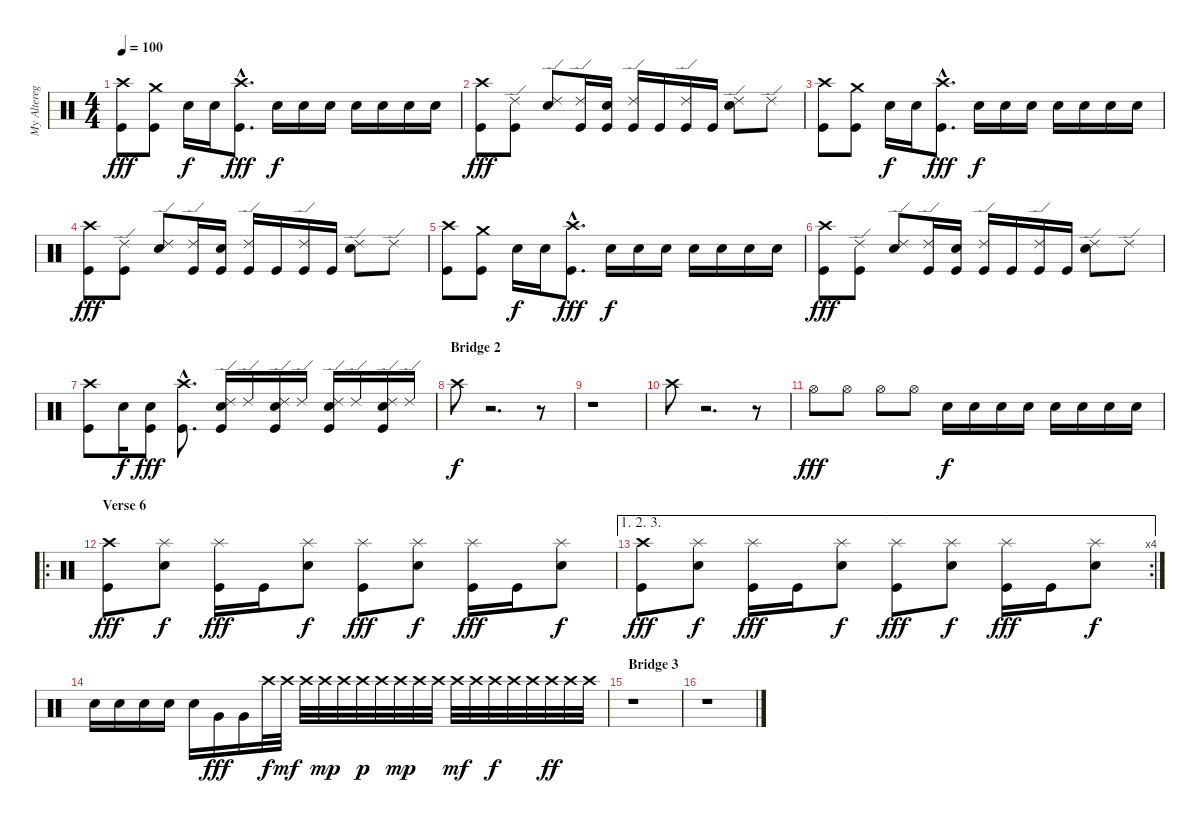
\track ("My Alterego Playing Drums" "My Altereg") {instrument percussion}
\staff {score}
\articulation defaults
\ts (4 4)
\tempo 100
\clef neutral
\ks c
("Crash high (hit)" "Kick (hit)").8{dy fff} ("Crash medium (hit)" "Kick (hit)").8 "Snare (hit) 2".16{dy f} "Snare (hit) 2".16 ("Crash high (hit)"{hac} "Kick (hit)"{hac}).8{d dy fff} "Snare (hit) 2".16{dy f} "Snare (hit) 2".16 "Snare (hit) 2".16 "Snare (hit) 2".16 "Snare (hit) 2".16 "Snare (hit) 2".16 "Snare (hit) 2".16 |
("Crash high (hit)" "Kick (hit)").8{dy fff} ("Ride (edge) 2" "Kick (hit)").8 ("Ride (edge) 2" "Snare (hit) 2").8 ("Ride (edge) 2" "Kick (hit)").16 ("Snare (hit) 2" "Kick (hit)").16 ("Ride (edge) 2" "Kick (hit)").16 "Kick (hit)".16 ("Ride (edge) 2" "Kick (hit)").16 "Kick (hit)".16 ("Ride (edge) 2" "Snare (hit) 2").8 "Ride (edge) 2".8 |
("Crash high (hit)" "Kick (hit)").8 ("Crash medium (hit)" "Kick (hit)").8 "Snare (hit) 2".16{dy f} "Snare (hit) 2".16 ("Crash high (hit)"{hac} "Kick (hit)"{hac}).8{d dy fff} "Snare (hit) 2".16{dy f} "Snare (hit) 2".16 "Snare (hit) 2".16 "Snare (hit) 2".16 "Snare (hit) 2".16 "Snare (hit) 2".16 "Snare (hit) 2".16 |
("Crash high (hit)" "Kick (hit)").8{dy fff} ("Ride (edge) 2" "Kick (hit)").8 ("Ride (edge) 2" "Snare (hit) 2").8 ("Ride (edge) 2" "Kick (hit)").16 ("Snare (hit) 2" "Kick (hit)").16 ("Ride (edge) 2" "Kick (hit)").16 "Kick (hit)".16 ("Ride (edge) 2" "Kick (hit)").16 "Kick (hit)".16 ("Ride (edge) 2" "Snare (hit) 2").8 "Ride (edge) 2".8 |
("Crash high (hit)" "Kick (hit)").8 ("Crash medium (hit)" "Kick (hit)").8 "Snare (hit) 2".16{dy f} "Snare (hit) 2".16 ("Crash high (hit)"{hac} "Kick (hit)"{hac}).8{d dy fff} "Snare (hit) 2".16{dy f} "Snare (hit) 2".16 "Snare (hit) 2".16 "Snare (hit) 2".16 "Snare (hit) 2".16 "Snare (hit) 2".16 "Snare (hit) 2".16 |
("Crash high (hit)" "Kick (hit)").8{dy fff} ("Ride (edge) 2" "Kick (hit)").8 ("Ride (edge) 2" "Snare (hit) 2").8 ("Ride (edge) 2" "Kick (hit)").16 ("Snare (hit) 2" "Kick (hit)").16 ("Ride (edge) 2" "Kick (hit)").16 "Kick (hit)".16 ("Ride (edge) 2" "Kick (hit)").16 "Kick (hit)".16 ("Ride (edge) 2" "Snare (hit) 2").8 "Ride (edge) 2".8 |
("Crash high (hit)" "Kick (hit)").8 "Snare (hit) 2".16{dy f} ("Snare (hit) 2" "Kick (hit)").8{dy fff} ("Crash high (hit)"{hac} "Kick (hit)"{hac}).8{d} ("Ride (edge) 2" "Snare (hit) 2" "Kick (hit)").16 "Ride (edge) 2".16 ("Ride (edge) 2" "Snare (hit) 2" "Kick (hit)").16 "Ride (edge) 2".16 ("Ride (edge) 2" "Snare (hit) 2" "Kick (hit)").16 "Ride (edge) 2".16 ("Ride (edge) 2" "Snare (hit) 2" "Kick (hit)").16 "Ride (edge) 2".16 |
\section ("" "Bridge 2")
"Crash high (hit)".8{dy f} r.2{d} r.8 |
r.1 |
"Crash high (hit)".8 r.2{d} r.8 |
"Hi-Hat (open)".8{dy fff} "Hi-Hat (open)".8 "Hi-Hat (open)".8 "Hi-Hat (open)".8 "Snare (hit) 2".16{dy f} "Snare (hit) 2".16 "Snare (hit) 2".16 "Snare (hit) 2".16 "Snare (hit) 2".16 "Snare (hit) 2".16 "Snare (hit) 2".16 "Snare (hit) 2".16 |
\ro
\section ("" "Verse 6")
("Crash high (hit)" "Kick (hit)").8{dy fff} ("Splash (hit)" "Snare (hit) 2").8{dy f} ("Splash (hit)" "Kick (hit)").16{dy fff} "Kick (hit)".16 ("Splash (hit)" "Snare (hit) 2").8{dy f} ("Splash (hit)" "Kick (hit)").8{dy fff} ("Splash (hit)" "Snare (hit) 2").8{dy f} ("Splash (hit)" "Kick (hit)").16{dy fff} "Kick (hit)".16 ("Splash (hit)" "Snare (hit) 2").8{dy f} |
\ae (1 2 3)
\rc 4
("Crash high (hit)" "Kick (hit)").8{dy fff} ("Splash (hit)" "Snare (hit) 2").8{dy f} ("Splash (hit)" "Kick (hit)").16{dy fff} "Kick (hit)".16 ("Splash (hit)" "Snare (hit) 2").8{dy f} ("Splash (hit)" "Kick (hit)").8{dy fff} ("Splash (hit)" "Snare (hit) 2").8{dy f} ("Splash (hit)" "Kick (hit)").16{dy fff} "Kick (hit)".16 ("Splash (hit)" "Snare (hit) 2").8{dy f} |
"Snare (hit) 2".16 "Snare (hit) 2".16 "Snare (hit) 2".16 "Snare (hit) 2".16 "Snare (hit) 2".16 "Very Low Tom (hit)".16{dy fff} "Very Low Tom (hit)".16 "Crash high (hit)".32{dy f} "Crash high (hit)".32{dy mf} "Crash high (hit)".32 "Crash high (hit)".32{dy mp} "Crash high (hit)".32 "Crash high (hit)".32{dy p} "Crash high (hit)".32 "Crash high (hit)".32{dy mp} "Crash high (hit)".32 "Crash high (hit)".32 "Crash high (hit)".32{dy mf} "Crash high (hit)".32 "Crash high (hit)".32{dy f} "Crash high (hit)".32 "Crash high (hit)".32 "Crash high (hit)".32{dy ff} "Crash high (hit)".32 "Crash high (hit)".32 |
\section ("" "Bridge 3")
r.1 |
r.1
